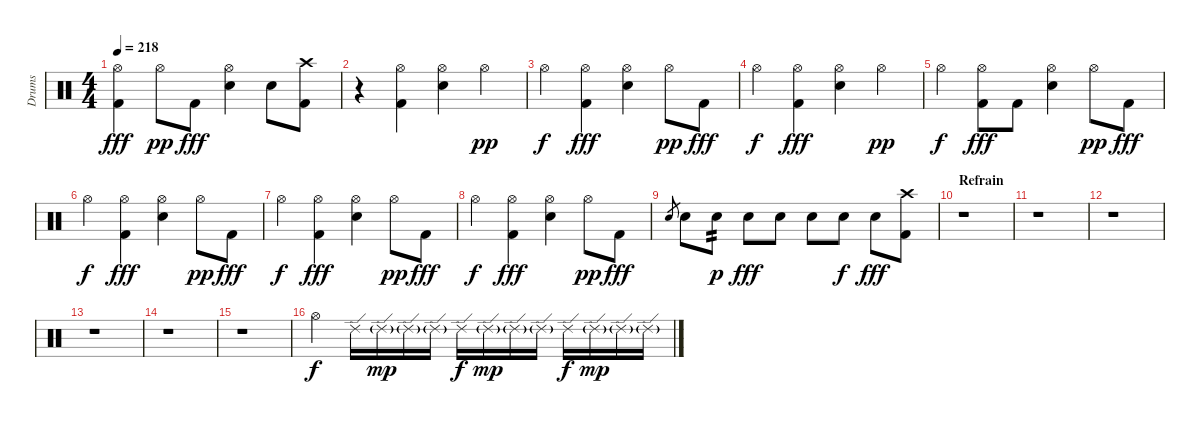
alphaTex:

\track ("Drums" "Drums") {instrument percussion}
\staff {score}
\articulation defaults
\ts (4 4)
\tempo 218
\clef neutral
\ks c
("Hi-Hat (open)" "Kick (hit) 2").4{dy fff} "Hi-Hat (open)".8{dy pp} "Kick (hit) 2".8{dy fff} ("Hi-Hat (open)" "Electric Snare (hit)").4 "Electric Snare (hit)".8 ("Crash high (hit)" "Kick (hit) 2").8 |
r.4 ("Hi-Hat (open)" "Kick (hit) 2").4 ("Hi-Hat (open)" "Electric Snare (hit)").4 "Hi-Hat (open)".4{dy pp} |
"Hi-Hat (open)".4{dy f} ("Hi-Hat (open)" "Kick (hit) 2").4{dy fff} ("Hi-Hat (open)" "Electric Snare (hit)").4 "Hi-Hat (open)".8{dy pp} "Kick (hit) 2".8{dy fff} |
"Hi-Hat (open)".4{dy f} ("Hi-Hat (open)" "Kick (hit) 2").4{dy fff} ("Hi-Hat (open)" "Electric Snare (hit)").4 "Hi-Hat (open)".4{dy pp} |
"Hi-Hat (open)".4{dy f} ("Hi-Hat (open)" "Kick (hit) 2").8{dy fff} "Kick (hit) 2".8 ("Hi-Hat (open)" "Electric Snare (hit)").4 "Hi-Hat (open)".8{dy pp} "Kick (hit) 2".8{dy fff} |
"Hi-Hat (open)".4{dy f} ("Hi-Hat (open)" "Kick (hit) 2").4{dy fff} ("Hi-Hat (open)" "Electric Snare (hit)").4 "Hi-Hat (open)".8{dy pp} "Kick (hit) 2".8{dy fff} |
"Hi-Hat (open)".4{dy f} ("Hi-Hat (open)" "Kick (hit) 2").4{dy fff} ("Hi-Hat (open)" "Electric Snare (hit)").4 "Hi-Hat (open)".8{dy pp} "Kick (hit) 2".8{dy fff} |
"Hi-Hat (open)".4{dy f} ("Hi-Hat (open)" "Kick (hit) 2").4{dy fff} ("Hi-Hat (open)" "Electric Snare (hit)").4 "Hi-Hat (open)".8{dy pp} "Kick (hit) 2".8{dy fff} |
"Electric Snare (hit)".8{gr} "Electric Snare (hit)".8 "Electric Snare (hit)".8{tp 2 dy p} "Electric Snare (hit)".8{dy fff} "Electric Snare (hit)".8 "Electric Snare (hit)".8 "Electric Snare (hit)".8{dy f} "Electric Snare (hit)".8{dy fff} ("Crash high (hit)" "Kick (hit) 2").8 |
\section ("" "Refrain")
r.1 |
r.1 |
r.1 |
r.1 |
r.1 |
r.1 |
"Hi-Hat (open)".4{dy f} "Ride (edge) 2".16 "Ride (edge) 2"{g}.16{dy mp} "Ride (edge) 2"{g}.16 "Ride (edge) 2"{g}.16 "Ride (edge) 2".16{dy f} "Ride (edge) 2"{g}.16{dy mp} "Ride (edge) 2"{g}.16 "Ride (edge) 2"{g}.16 "Ride (edge) 2".16{dy f} "Ride (edge) 2"{g}.16{dy mp} "Ride (edge) 2"{g}.16 "Ride (edge) 2"{g}.16
